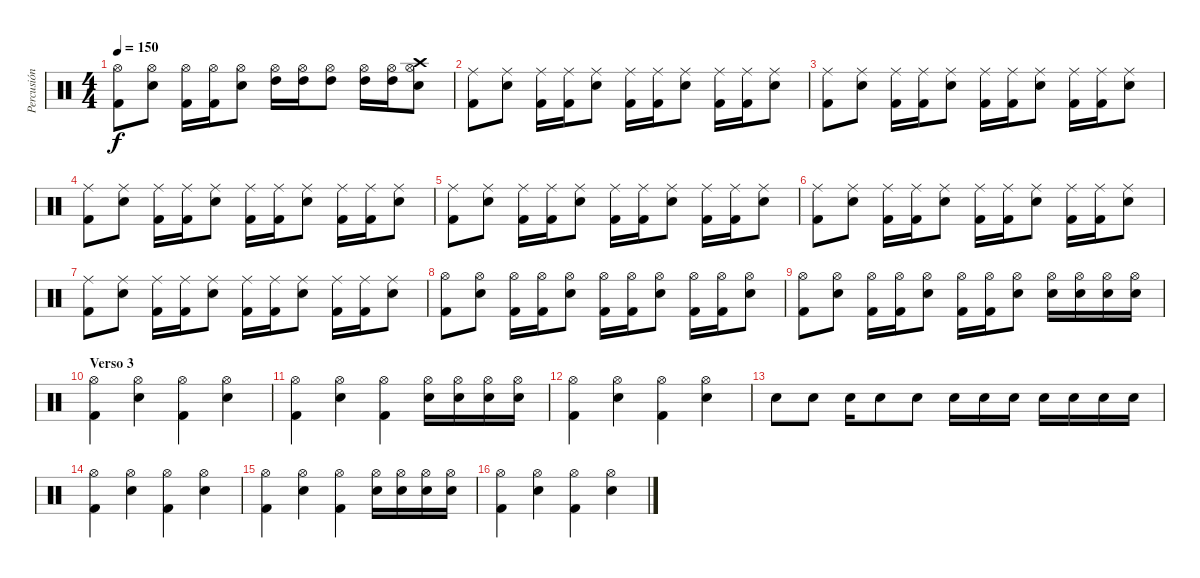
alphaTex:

\track ("Percusión" "Percusión") {instrument percussion}
\staff {score}
\articulation defaults
\ts (4 4)
\tempo 150
\clef neutral
\ks c
("Kick (hit) 2" "Hi-Hat (open)").8{dy f} ("Electric Snare (hit)" "Hi-Hat (open)").8 ("Kick (hit) 2" "Hi-Hat (open)").16 ("Kick (hit) 2" "Hi-Hat (open)").16 ("Electric Snare (hit)" "Hi-Hat (open)").8 ("High Tom (hit)" "Hi-Hat (open)").16 ("High Tom (hit)" "Hi-Hat (open)").16 ("High Tom (hit)" "Hi-Hat (open)").8 ("High Tom (hit)" "Hi-Hat (open)").16 ("High Tom (hit)" "Hi-Hat (open)").16 ("Crash high (hit)" "Electric Snare (hit)" "Hi-Hat (open)").8 |
("Kick (hit) 2" "Ride (middle)").8 ("Electric Snare (hit)" "Ride (middle)").8 ("Kick (hit) 2" "Ride (middle)").16 ("Kick (hit) 2" "Ride (middle)").16 ("Electric Snare (hit)" "Ride (middle)").8 ("Kick (hit) 2" "Ride (middle)").16 ("Kick (hit) 2" "Ride (middle)").16 ("Electric Snare (hit)" "Ride (middle)").8 ("Kick (hit) 2" "Ride (middle)").16 ("Kick (hit) 2" "Ride (middle)").16 ("Electric Snare (hit)" "Ride (middle)").8 |
("Kick (hit) 2" "Ride (middle)").8 ("Electric Snare (hit)" "Ride (middle)").8 ("Kick (hit) 2" "Ride (middle)").16 ("Kick (hit) 2" "Ride (middle)").16 ("Electric Snare (hit)" "Ride (middle)").8 ("Kick (hit) 2" "Ride (middle)").16 ("Kick (hit) 2" "Ride (middle)").16 ("Electric Snare (hit)" "Ride (middle)").8 ("Kick (hit) 2" "Ride (middle)").16 ("Kick (hit) 2" "Ride (middle)").16 ("Electric Snare (hit)" "Ride (middle)").8 |
("Kick (hit) 2" "Ride (middle)").8 ("Electric Snare (hit)" "Ride (middle)").8 ("Kick (hit) 2" "Ride (middle)").16 ("Kick (hit) 2" "Ride (middle)").16 ("Electric Snare (hit)" "Ride (middle)").8 ("Kick (hit) 2" "Ride (middle)").16 ("Kick (hit) 2" "Ride (middle)").16 ("Electric Snare (hit)" "Ride (middle)").8 ("Kick (hit) 2" "Ride (middle)").16 ("Kick (hit) 2" "Ride (middle)").16 ("Electric Snare (hit)" "Ride (middle)").8 |
("Kick (hit) 2" "Ride (middle)").8 ("Electric Snare (hit)" "Ride (middle)").8 ("Kick (hit) 2" "Ride (middle)").16 ("Kick (hit) 2" "Ride (middle)").16 ("Electric Snare (hit)" "Ride (middle)").8 ("Kick (hit) 2" "Ride (middle)").16 ("Kick (hit) 2" "Ride (middle)").16 ("Electric Snare (hit)" "Ride (middle)").8 ("Kick (hit) 2" "Ride (middle)").16 ("Kick (hit) 2" "Ride (middle)").16 ("Electric Snare (hit)" "Ride (middle)").8 |
("Kick (hit) 2" "Ride (middle)").8 ("Electric Snare (hit)" "Ride (middle)").8 ("Kick (hit) 2" "Ride (middle)").16 ("Kick (hit) 2" "Ride (middle)").16 ("Electric Snare (hit)" "Ride (middle)").8 ("Kick (hit) 2" "Ride (middle)").16 ("Kick (hit) 2" "Ride (middle)").16 ("Electric Snare (hit)" "Ride (middle)").8 ("Kick (hit) 2" "Ride (middle)").16 ("Kick (hit) 2" "Ride (middle)").16 ("Electric Snare (hit)" "Ride (middle)").8 |
("Kick (hit) 2" "Ride (middle)").8 ("Electric Snare (hit)" "Ride (middle)").8 ("Kick (hit) 2" "Ride (middle)").16 ("Kick (hit) 2" "Ride (middle)").16 ("Electric Snare (hit)" "Ride (middle)").8 ("Kick (hit) 2" "Ride (middle)").16 ("Kick (hit) 2" "Ride (middle)").16 ("Electric Snare (hit)" "Ride (middle)").8 ("Kick (hit) 2" "Ride (middle)").16 ("Kick (hit) 2" "Ride (middle)").16 ("Electric Snare (hit)" "Ride (middle)").8 |
("Kick (hit) 2" "Hi-Hat (open)").8 ("Electric Snare (hit)" "Hi-Hat (open)").8 ("Kick (hit) 2" "Hi-Hat (open)").16 ("Kick (hit) 2" "Hi-Hat (open)").16 ("Electric Snare (hit)" "Hi-Hat (open)").8 ("Kick (hit) 2" "Hi-Hat (open)").16 ("Kick (hit) 2" "Hi-Hat (open)").16 ("Electric Snare (hit)" "Hi-Hat (open)").8 ("Kick (hit) 2" "Hi-Hat (open)").16 ("Kick (hit) 2" "Hi-Hat (open)").16 ("Electric Snare (hit)" "Hi-Hat (open)").8 |
("Kick (hit) 2" "Hi-Hat (open)").8 ("Electric Snare (hit)" "Hi-Hat (open)").8 ("Kick (hit) 2" "Hi-Hat (open)").16 ("Kick (hit) 2" "Hi-Hat (open)").16 ("Electric Snare (hit)" "Hi-Hat (open)").8 ("Kick (hit) 2" "Hi-Hat (open)").16 ("Kick (hit) 2" "Hi-Hat (open)").16 ("Electric Snare (hit)" "Hi-Hat (open)").8 ("Electric Snare (hit)" "Hi-Hat (open)").16 ("Electric Snare (hit)" "Hi-Hat (open)").16 ("Electric Snare (hit)" "Hi-Hat (open)").16 ("Electric Snare (hit)" "Hi-Hat (open)").16 |
\section ("" "Verso 3")
("Hi-Hat (open)" "Kick (hit) 2").4 ("Hi-Hat (open)" "Electric Snare (hit)").4 ("Hi-Hat (open)" "Kick (hit) 2").4 ("Hi-Hat (open)" "Electric Snare (hit)").4 |
("Hi-Hat (open)" "Kick (hit) 2").4 ("Hi-Hat (open)" "Electric Snare (hit)").4 ("Hi-Hat (open)" "Kick (hit) 2").4 ("Hi-Hat (open)" "Electric Snare (hit)").16 ("Hi-Hat (open)" "Electric Snare (hit)").16 ("Hi-Hat (open)" "Electric Snare (hit)").16 ("Hi-Hat (open)" "Electric Snare (hit)").16 |
("Hi-Hat (open)" "Kick (hit) 2").4 ("Hi-Hat (open)" "Electric Snare (hit)").4 ("Hi-Hat (open)" "Kick (hit) 2").4 ("Hi-Hat (open)" "Electric Snare (hit)").4 |
"Electric Snare (hit)".8 "Electric Snare (hit)".8 "Electric Snare (hit)".16 "Electric Snare (hit)".8 "Electric Snare (hit)".8 "Electric Snare (hit)".16 "Electric Snare (hit)".16 "Electric Snare (hit)".16 "Electric Snare (hit)".16 "Electric Snare (hit)".16 "Electric Snare (hit)".16 "Electric Snare (hit)".16 |
("Hi-Hat (open)" "Kick (hit) 2").4 ("Hi-Hat (open)" "Electric Snare (hit)").4 ("Hi-Hat (open)" "Kick (hit) 2").4 ("Hi-Hat (open)" "Electric Snare (hit)").4 |
("Hi-Hat (open)" "Kick (hit) 2").4 ("Hi-Hat (open)" "Electric Snare (hit)").4 ("Hi-Hat (open)" "Kick (hit) 2").4 ("Hi-Hat (open)" "Electric Snare (hit)").16 ("Hi-Hat (open)" "Electric Snare (hit)").16 ("Hi-Hat (open)" "Electric Snare (hit)").16 ("Hi-Hat (open)" "Electric Snare (hit)").16 |
("Hi-Hat (open)" "Kick (hit) 2").4 ("Hi-Hat (open)" "Electric Snare (hit)").4 ("Hi-Hat (open)" "Kick (hit) 2").4 ("Hi-Hat (open)" "Electric Snare (hit)").4
